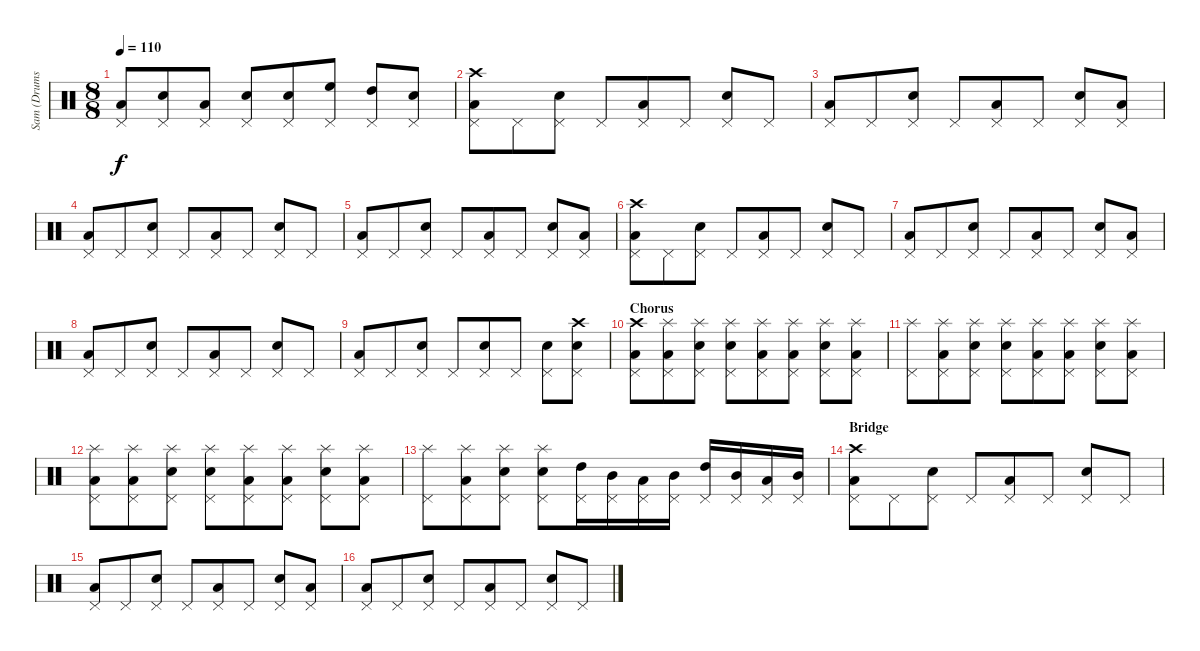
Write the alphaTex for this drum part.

\track ("Sam (Drums)" "Sam (Drums") {instrument percussion}
\staff {score}
\articulation defaults
\ts (8 8)
\tempo 110
\clef neutral
\ks c
("Low Tom (hit)" "Pedal Hi-Hat (hit)").8{dy f} ("Snare (hit) 2" "Pedal Hi-Hat (hit)").8 ("Low Tom (hit)" "Pedal Hi-Hat (hit)").8 ("Snare (hit) 2" "Pedal Hi-Hat (hit)").8 ("Electric Snare (hit)" "Pedal Hi-Hat (hit)").8 ("High Floor Tom (hit)" "Pedal Hi-Hat (hit)").8 ("High Tom (hit)" "Pedal Hi-Hat (hit)").8 ("Electric Snare (hit)" "Pedal Hi-Hat (hit)").8 |
("Crash high (hit)" "Low Tom (hit)" "Pedal Hi-Hat (hit)").8 "Pedal Hi-Hat (hit)".8 ("Snare (hit) 2" "Pedal Hi-Hat (hit)").8 "Pedal Hi-Hat (hit)".8 ("Low Tom (hit)" "Pedal Hi-Hat (hit)").8 "Pedal Hi-Hat (hit)".8 ("Snare (hit) 2" "Pedal Hi-Hat (hit)").8 "Pedal Hi-Hat (hit)".8 |
("Low Tom (hit)" "Pedal Hi-Hat (hit)").8 "Pedal Hi-Hat (hit)".8 ("Snare (hit) 2" "Pedal Hi-Hat (hit)").8 "Pedal Hi-Hat (hit)".8 ("Low Tom (hit)" "Pedal Hi-Hat (hit)").8 "Pedal Hi-Hat (hit)".8 ("Snare (hit) 2" "Pedal Hi-Hat (hit)").8 ("Low Tom (hit)" "Pedal Hi-Hat (hit)").8 |
("Low Tom (hit)" "Pedal Hi-Hat (hit)").8 "Pedal Hi-Hat (hit)".8 ("Snare (hit) 2" "Pedal Hi-Hat (hit)").8 "Pedal Hi-Hat (hit)".8 ("Low Tom (hit)" "Pedal Hi-Hat (hit)").8 "Pedal Hi-Hat (hit)".8 ("Snare (hit) 2" "Pedal Hi-Hat (hit)").8 "Pedal Hi-Hat (hit)".8 |
("Low Tom (hit)" "Pedal Hi-Hat (hit)").8 "Pedal Hi-Hat (hit)".8 ("Snare (hit) 2" "Pedal Hi-Hat (hit)").8 "Pedal Hi-Hat (hit)".8 ("Low Tom (hit)" "Pedal Hi-Hat (hit)").8 "Pedal Hi-Hat (hit)".8 ("Snare (hit) 2" "Pedal Hi-Hat (hit)").8 ("Low Tom (hit)" "Pedal Hi-Hat (hit)").8 |
("Crash high (hit)" "Low Tom (hit)" "Pedal Hi-Hat (hit)").8 "Pedal Hi-Hat (hit)".8 ("Snare (hit) 2" "Pedal Hi-Hat (hit)").8 "Pedal Hi-Hat (hit)".8 ("Low Tom (hit)" "Pedal Hi-Hat (hit)").8 "Pedal Hi-Hat (hit)".8 ("Snare (hit) 2" "Pedal Hi-Hat (hit)").8 "Pedal Hi-Hat (hit)".8 |
("Low Tom (hit)" "Pedal Hi-Hat (hit)").8 "Pedal Hi-Hat (hit)".8 ("Snare (hit) 2" "Pedal Hi-Hat (hit)").8 "Pedal Hi-Hat (hit)".8 ("Low Tom (hit)" "Pedal Hi-Hat (hit)").8 "Pedal Hi-Hat (hit)".8 ("Snare (hit) 2" "Pedal Hi-Hat (hit)").8 ("Low Tom (hit)" "Pedal Hi-Hat (hit)").8 |
("Low Tom (hit)" "Pedal Hi-Hat (hit)").8 "Pedal Hi-Hat (hit)".8 ("Snare (hit) 2" "Pedal Hi-Hat (hit)").8 "Pedal Hi-Hat (hit)".8 ("Low Tom (hit)" "Pedal Hi-Hat (hit)").8 "Pedal Hi-Hat (hit)".8 ("Snare (hit) 2" "Pedal Hi-Hat (hit)").8 "Pedal Hi-Hat (hit)".8 |
("Low Tom (hit)" "Pedal Hi-Hat (hit)").8 "Pedal Hi-Hat (hit)".8 ("Snare (hit) 2" "Pedal Hi-Hat (hit)").8 "Pedal Hi-Hat (hit)".8 ("Snare (hit) 2" "Pedal Hi-Hat (hit)").8 "Pedal Hi-Hat (hit)".8 ("Snare (hit) 2" "Pedal Hi-Hat (hit)").8 ("Crash high (hit)" "Snare (hit) 2" "Pedal Hi-Hat (hit)").8 |
\section ("" "Chorus")
("Crash high (hit)" "Low Tom (hit)" "Pedal Hi-Hat (hit)").8 ("Splash (hit)" "Low Tom (hit)" "Pedal Hi-Hat (hit)").8 ("Splash (hit)" "Snare (hit) 2" "Pedal Hi-Hat (hit)").8 ("Splash (hit)" "Snare (hit) 2" "Pedal Hi-Hat (hit)").8 ("Splash (hit)" "Low Tom (hit)" "Pedal Hi-Hat (hit)").8 ("Splash (hit)" "Low Tom (hit)" "Pedal Hi-Hat (hit)").8 ("Splash (hit)" "Snare (hit) 2" "Pedal Hi-Hat (hit)").8 ("Splash (hit)" "Low Tom (hit)" "Pedal Hi-Hat (hit)").8 |
("Splash (hit)" "Pedal Hi-Hat (hit)").8 ("Splash (hit)" "Low Tom (hit)" "Pedal Hi-Hat (hit)").8 ("Splash (hit)" "Snare (hit) 2" "Pedal Hi-Hat (hit)").8 ("Splash (hit)" "Snare (hit) 2" "Pedal Hi-Hat (hit)").8 ("Splash (hit)" "Low Tom (hit)" "Pedal Hi-Hat (hit)").8 ("Splash (hit)" "Low Tom (hit)" "Pedal Hi-Hat (hit)").8 ("Splash (hit)" "Snare (hit) 2" "Pedal Hi-Hat (hit)").8 ("Splash (hit)" "Low Tom (hit)" "Pedal Hi-Hat (hit)").8 |
("Splash (hit)" "Low Tom (hit)" "Pedal Hi-Hat (hit)").8 ("Splash (hit)" "Low Tom (hit)" "Pedal Hi-Hat (hit)").8 ("Splash (hit)" "Snare (hit) 2" "Pedal Hi-Hat (hit)").8 ("Splash (hit)" "Snare (hit) 2" "Pedal Hi-Hat (hit)").8 ("Splash (hit)" "Low Tom (hit)" "Pedal Hi-Hat (hit)").8 ("Splash (hit)" "Low Tom (hit)" "Pedal Hi-Hat (hit)").8 ("Splash (hit)" "Snare (hit) 2" "Pedal Hi-Hat (hit)").8 ("Splash (hit)" "Low Tom (hit)" "Pedal Hi-Hat (hit)").8 |
("Splash (hit)" "Pedal Hi-Hat (hit)").8 ("Splash (hit)" "Low Tom (hit)" "Pedal Hi-Hat (hit)").8 ("Splash (hit)" "Snare (hit) 2" "Pedal Hi-Hat (hit)").8 ("Splash (hit)" "Snare (hit) 2" "Pedal Hi-Hat (hit)").8 ("High Tom (hit)" "Pedal Hi-Hat (hit)").16 ("Mid Tom (hit)" "Pedal Hi-Hat (hit)").16 ("Low Tom (hit)" "Pedal Hi-Hat (hit)").16 ("Mid Tom (hit)" "Pedal Hi-Hat (hit)").16 ("High Tom (hit)" "Pedal Hi-Hat (hit)").16 ("Mid Tom (hit)" "Pedal Hi-Hat (hit)").16 ("Low Tom (hit)" "Pedal Hi-Hat (hit)").16 ("Mid Tom (hit)" "Pedal Hi-Hat (hit)").16 |
\section ("" "Bridge")
("Crash high (hit)" "Low Tom (hit)" "Pedal Hi-Hat (hit)").8 "Pedal Hi-Hat (hit)".8 ("Snare (hit) 2" "Pedal Hi-Hat (hit)").8 "Pedal Hi-Hat (hit)".8 ("Low Tom (hit)" "Pedal Hi-Hat (hit)").8 "Pedal Hi-Hat (hit)".8 ("Snare (hit) 2" "Pedal Hi-Hat (hit)").8 "Pedal Hi-Hat (hit)".8 |
("Low Tom (hit)" "Pedal Hi-Hat (hit)").8 "Pedal Hi-Hat (hit)".8 ("Snare (hit) 2" "Pedal Hi-Hat (hit)").8 "Pedal Hi-Hat (hit)".8 ("Low Tom (hit)" "Pedal Hi-Hat (hit)").8 "Pedal Hi-Hat (hit)".8 ("Snare (hit) 2" "Pedal Hi-Hat (hit)").8 ("Low Tom (hit)" "Pedal Hi-Hat (hit)").8 |
("Low Tom (hit)" "Pedal Hi-Hat (hit)").8 "Pedal Hi-Hat (hit)".8 ("Snare (hit) 2" "Pedal Hi-Hat (hit)").8 "Pedal Hi-Hat (hit)".8 ("Low Tom (hit)" "Pedal Hi-Hat (hit)").8 "Pedal Hi-Hat (hit)".8 ("Snare (hit) 2" "Pedal Hi-Hat (hit)").8 "Pedal Hi-Hat (hit)".8
